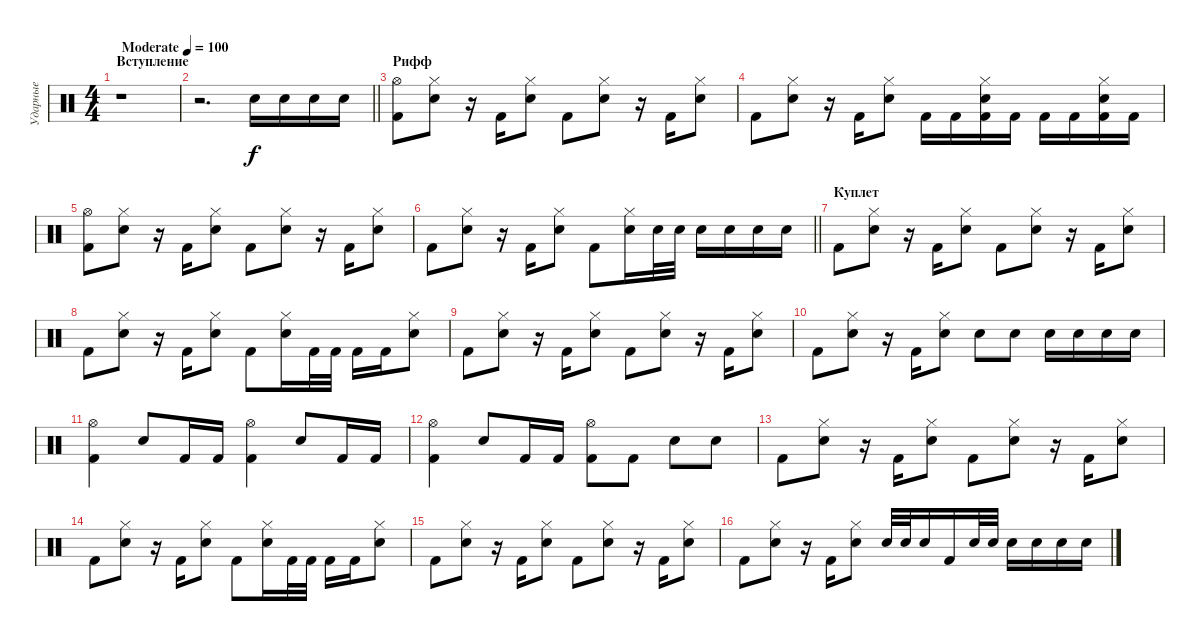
\track ("Ударные" "Ударные") {instrument percussion}
\staff {score}
\articulation defaults
\ts (4 4)
\section ("" "Вступление")
\tempo (100 "Moderate")
\clef neutral
\ks c
r.1{dy f} |
\barLineRight lightlight
r.2{d} "Snare (hit) 2".16 "Snare (hit) 2".16 "Snare (hit) 2".16 "Snare (hit) 2".16 |
\section ("" "Рифф")
("Hi-Hat (open)" "Kick (hit) 2").8 ("Hi-Hat (closed)" "Snare (hit) 2").8 r.16 "Kick (hit) 2".16 ("Hi-Hat (closed)" "Snare (hit) 2").8 "Kick (hit) 2".8 ("Hi-Hat (closed)" "Snare (hit) 2").8 r.16 "Kick (hit) 2".16 ("Hi-Hat (closed)" "Snare (hit) 2").8 |
"Kick (hit) 2".8 ("Hi-Hat (closed)" "Snare (hit) 2").8 r.16 "Kick (hit) 2".16 ("Hi-Hat (closed)" "Snare (hit) 2").8 "Kick (hit) 2".16 "Kick (hit) 2".16 ("Hi-Hat (closed)" "Snare (hit) 2" "Kick (hit) 2").16 "Kick (hit) 2".16 "Kick (hit) 2".16 "Kick (hit) 2".16 ("Hi-Hat (closed)" "Snare (hit) 2" "Kick (hit) 2").16 "Kick (hit) 2".16 |
("Hi-Hat (open)" "Kick (hit) 2").8 ("Hi-Hat (closed)" "Snare (hit) 2").8 r.16 "Kick (hit) 2".16 ("Hi-Hat (closed)" "Snare (hit) 2").8 "Kick (hit) 2".8 ("Hi-Hat (closed)" "Snare (hit) 2").8 r.16 "Kick (hit) 2".16 ("Hi-Hat (closed)" "Snare (hit) 2").8 |
\barLineRight lightlight "Kick (hit) 2".8
("Hi-Hat (closed)" "Snare (hit) 2").8 r.16 "Kick (hit) 2".16 ("Hi-Hat (closed)" "Snare (hit) 2").8 "Kick (hit) 2".8 ("Hi-Hat (closed)" "Snare (hit) 2").16 "Snare (hit) 2".32 "Snare (hit) 2".32 "Snare (hit) 2".16 "Snare (hit) 2".16 "Snare (hit) 2".16 "Snare (hit) 2".16 |
\section ("" "Куплет")
"Kick (hit) 2".8 ("Hi-Hat (closed)" "Snare (hit) 2").8 r.16 "Kick (hit) 2".16 ("Hi-Hat (closed)" "Snare (hit) 2").8 "Kick (hit) 2".8 ("Hi-Hat (closed)" "Snare (hit) 2").8 r.16 "Kick (hit) 2".16 ("Hi-Hat (closed)" "Snare (hit) 2").8 |
"Kick (hit) 2".8 ("Hi-Hat (closed)" "Snare (hit) 2").8 r.16 "Kick (hit) 2".16 ("Hi-Hat (closed)" "Snare (hit) 2").8 "Kick (hit) 2".8 ("Hi-Hat (closed)" "Snare (hit) 2").16 "Kick (hit) 2".32 "Kick (hit) 2".32 "Kick (hit) 2".16 "Kick (hit) 2".16 ("Hi-Hat (closed)" "Snare (hit) 2").8 |
"Kick (hit) 2".8 ("Hi-Hat (closed)" "Snare (hit) 2").8 r.16 "Kick (hit) 2".16 ("Hi-Hat (closed)" "Snare (hit) 2").8 "Kick (hit) 2".8 ("Hi-Hat (closed)" "Snare (hit) 2").8 r.16 "Kick (hit) 2".16 ("Hi-Hat (closed)" "Snare (hit) 2").8 |
"Kick (hit) 2".8 ("Hi-Hat (closed)" "Snare (hit) 2").8 r.16 "Kick (hit) 2".16 ("Hi-Hat (closed)" "Snare (hit) 2").8 "Snare (hit) 2".8 "Snare (hit) 2".8 "Snare (hit) 2".16 "Snare (hit) 2".16 "Snare (hit) 2".16 "Snare (hit) 2".16 |
("Hi-Hat (open)" "Kick (hit) 2").4 "Snare (hit) 2".8 "Kick (hit) 2".16 "Kick (hit) 2".16 ("Hi-Hat (open)" "Kick (hit) 2").4 "Snare (hit) 2".8 "Kick (hit) 2".16 "Kick (hit) 2".16 |
("Hi-Hat (open)" "Kick (hit) 2").4 "Snare (hit) 2".8 "Kick (hit) 2".16 "Kick (hit) 2".16 ("Hi-Hat (open)" "Kick (hit) 2").8 "Kick (hit) 2".8 "Snare (hit) 2".8 "Snare (hit) 2".8 |
"Kick (hit) 2".8 ("Hi-Hat (closed)" "Snare (hit) 2").8 r.16 "Kick (hit) 2".16 ("Hi-Hat (closed)" "Snare (hit) 2").8 "Kick (hit) 2".8 ("Hi-Hat (closed)" "Snare (hit) 2").8 r.16 "Kick (hit) 2".16 ("Hi-Hat (closed)" "Snare (hit) 2").8 |
"Kick (hit) 2".8 ("Hi-Hat (closed)" "Snare (hit) 2").8 r.16 "Kick (hit) 2".16 ("Hi-Hat (closed)" "Snare (hit) 2").8 "Kick (hit) 2".8 ("Hi-Hat (closed)" "Snare (hit) 2").16 "Kick (hit) 2".32 "Kick (hit) 2".32 "Kick (hit) 2".16 "Kick (hit) 2".16 ("Hi-Hat (closed)" "Snare (hit) 2").8 |
"Kick (hit) 2".8 ("Hi-Hat (closed)" "Snare (hit) 2").8 r.16 "Kick (hit) 2".16 ("Hi-Hat (closed)" "Snare (hit) 2").8 "Kick (hit) 2".8 ("Hi-Hat (closed)" "Snare (hit) 2").8 r.16 "Kick (hit) 2".16 ("Hi-Hat (closed)" "Snare (hit) 2").8 |
"Kick (hit) 2".8 ("Hi-Hat (closed)" "Snare (hit) 2").8 r.16 "Kick (hit) 2".16 ("Hi-Hat (closed)" "Snare (hit) 2").8 "Snare (hit) 2".32 "Snare (hit) 2".32 "Snare (hit) 2".16 "Kick (hit) 2".16 "Snare (hit) 2".32 "Snare (hit) 2".32 "Snare (hit) 2".16 "Snare (hit) 2".16 "Snare (hit) 2".16 "Snare (hit) 2".16
